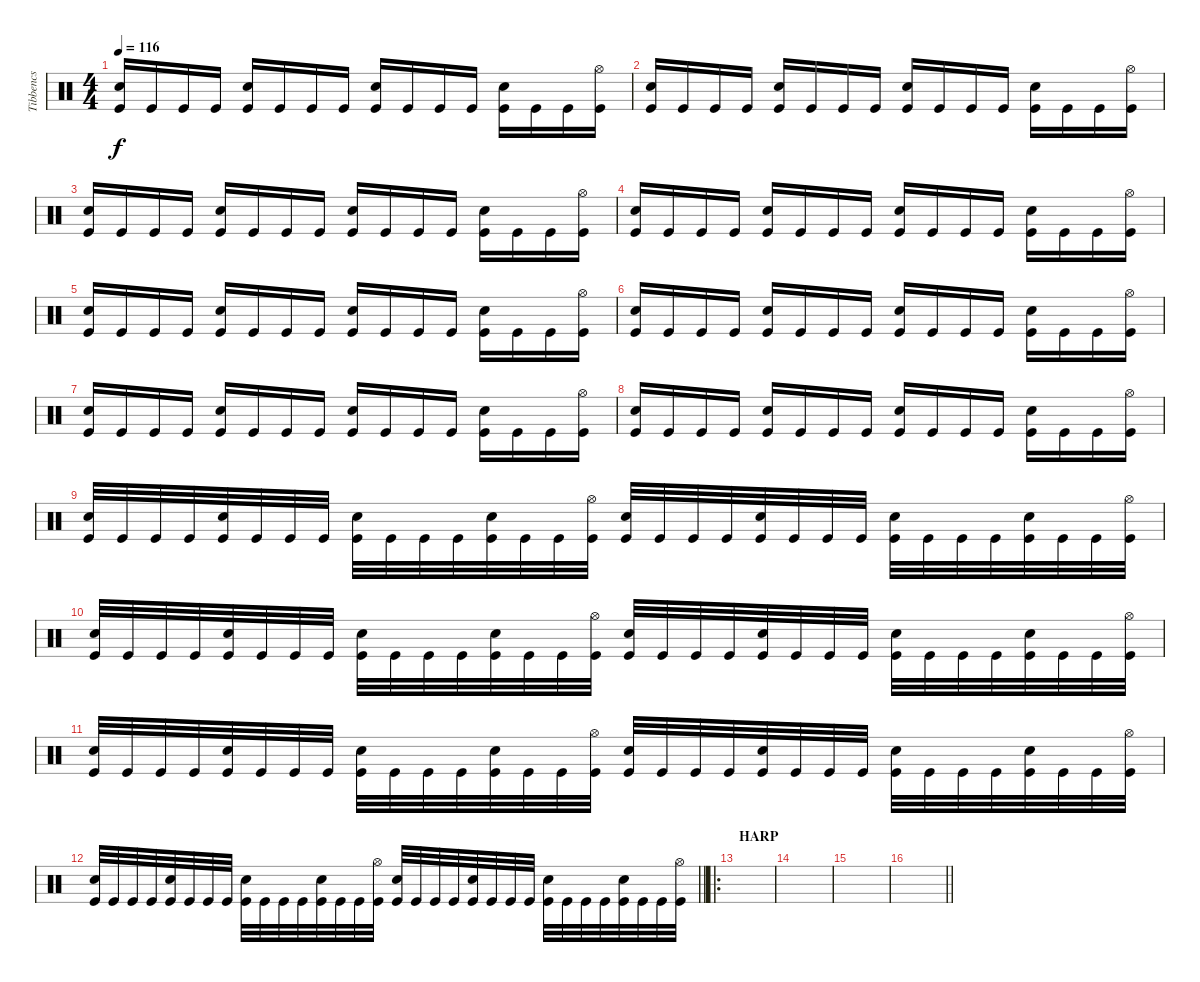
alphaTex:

\track ("Tibbencs" "Tibbencs") {instrument percussion}
\staff {score}
\articulation defaults
\ts (4 4)
\tempo 116
\clef neutral
\ks c
("Kick (hit)" "Snare (hit) 2").16{dy f} "Kick (hit)".16 "Kick (hit)".16 "Kick (hit)".16 ("Kick (hit)" "Snare (hit) 2").16 "Kick (hit)".16 "Kick (hit)".16 "Kick (hit)".16 ("Kick (hit)" "Snare (hit) 2").16 "Kick (hit)".16 "Kick (hit)".16 "Kick (hit)".16 ("Kick (hit)" "Snare (hit) 2").16 "Kick (hit)".16 "Kick (hit)".16 ("Kick (hit)" "Hi-Hat (open)").16 |
("Kick (hit)" "Snare (hit) 2").16 "Kick (hit)".16 "Kick (hit)".16 "Kick (hit)".16 ("Kick (hit)" "Snare (hit) 2").16 "Kick (hit)".16 "Kick (hit)".16 "Kick (hit)".16 ("Kick (hit)" "Snare (hit) 2").16 "Kick (hit)".16 "Kick (hit)".16 "Kick (hit)".16 ("Kick (hit)" "Snare (hit) 2").16 "Kick (hit)".16 "Kick (hit)".16 ("Kick (hit)" "Hi-Hat (open)").16 |
("Kick (hit)" "Snare (hit) 2").16 "Kick (hit)".16 "Kick (hit)".16 "Kick (hit)".16 ("Kick (hit)" "Snare (hit) 2").16 "Kick (hit)".16 "Kick (hit)".16 "Kick (hit)".16 ("Kick (hit)" "Snare (hit) 2").16 "Kick (hit)".16 "Kick (hit)".16 "Kick (hit)".16 ("Kick (hit)" "Snare (hit) 2").16 "Kick (hit)".16 "Kick (hit)".16 ("Kick (hit)" "Hi-Hat (open)").16 |
("Kick (hit)" "Snare (hit) 2").16 "Kick (hit)".16 "Kick (hit)".16 "Kick (hit)".16 ("Kick (hit)" "Snare (hit) 2").16 "Kick (hit)".16 "Kick (hit)".16 "Kick (hit)".16 ("Kick (hit)" "Snare (hit) 2").16 "Kick (hit)".16 "Kick (hit)".16 "Kick (hit)".16 ("Kick (hit)" "Snare (hit) 2").16 "Kick (hit)".16 "Kick (hit)".16 ("Kick (hit)" "Hi-Hat (open)").16 |
("Kick (hit)" "Snare (hit) 2").16 "Kick (hit)".16 "Kick (hit)".16 "Kick (hit)".16 ("Kick (hit)" "Snare (hit) 2").16 "Kick (hit)".16 "Kick (hit)".16 "Kick (hit)".16 ("Kick (hit)" "Snare (hit) 2").16 "Kick (hit)".16 "Kick (hit)".16 "Kick (hit)".16 ("Kick (hit)" "Snare (hit) 2").16 "Kick (hit)".16 "Kick (hit)".16 ("Kick (hit)" "Hi-Hat (open)").16 |
("Kick (hit)" "Snare (hit) 2").16 "Kick (hit)".16 "Kick (hit)".16 "Kick (hit)".16 ("Kick (hit)" "Snare (hit) 2").16 "Kick (hit)".16 "Kick (hit)".16 "Kick (hit)".16 ("Kick (hit)" "Snare (hit) 2").16 "Kick (hit)".16 "Kick (hit)".16 "Kick (hit)".16 ("Kick (hit)" "Snare (hit) 2").16 "Kick (hit)".16 "Kick (hit)".16 ("Kick (hit)" "Hi-Hat (open)").16 |
("Kick (hit)" "Snare (hit) 2").16 "Kick (hit)".16 "Kick (hit)".16 "Kick (hit)".16 ("Kick (hit)" "Snare (hit) 2").16 "Kick (hit)".16 "Kick (hit)".16 "Kick (hit)".16 ("Kick (hit)" "Snare (hit) 2").16 "Kick (hit)".16 "Kick (hit)".16 "Kick (hit)".16 ("Kick (hit)" "Snare (hit) 2").16 "Kick (hit)".16 "Kick (hit)".16 ("Kick (hit)" "Hi-Hat (open)").16 |
("Kick (hit)" "Snare (hit) 2").16 "Kick (hit)".16 "Kick (hit)".16 "Kick (hit)".16 ("Kick (hit)" "Snare (hit) 2").16 "Kick (hit)".16 "Kick (hit)".16 "Kick (hit)".16 ("Kick (hit)" "Snare (hit) 2").16 "Kick (hit)".16 "Kick (hit)".16 "Kick (hit)".16 ("Kick (hit)" "Snare (hit) 2").16 "Kick (hit)".16 "Kick (hit)".16 ("Kick (hit)" "Hi-Hat (open)").16 |
("Kick (hit)" "Snare (hit) 2").32 "Kick (hit)".32 "Kick (hit)".32 "Kick (hit)".32 ("Kick (hit)" "Snare (hit) 2").32 "Kick (hit)".32 "Kick (hit)".32 "Kick (hit)".32 ("Kick (hit)" "Snare (hit) 2").32 "Kick (hit)".32 "Kick (hit)".32 "Kick (hit)".32 ("Kick (hit)" "Snare (hit) 2").32 "Kick (hit)".32 "Kick (hit)".32 ("Kick (hit)" "Hi-Hat (open)").32 ("Kick (hit)" "Snare (hit) 2").32 "Kick (hit)".32 "Kick (hit)".32 "Kick (hit)".32 ("Kick (hit)" "Snare (hit) 2").32 "Kick (hit)".32 "Kick (hit)".32 "Kick (hit)".32 ("Kick (hit)" "Snare (hit) 2").32 "Kick (hit)".32 "Kick (hit)".32 "Kick (hit)".32 ("Kick (hit)" "Snare (hit) 2").32 "Kick (hit)".32 "Kick (hit)".32 ("Kick (hit)" "Hi-Hat (open)").32 |
("Kick (hit)" "Snare (hit) 2").32 "Kick (hit)".32 "Kick (hit)".32 "Kick (hit)".32 ("Kick (hit)" "Snare (hit) 2").32 "Kick (hit)".32 "Kick (hit)".32 "Kick (hit)".32 ("Kick (hit)" "Snare (hit) 2").32 "Kick (hit)".32 "Kick (hit)".32 "Kick (hit)".32 ("Kick (hit)" "Snare (hit) 2").32 "Kick (hit)".32 "Kick (hit)".32 ("Kick (hit)" "Hi-Hat (open)").32 ("Kick (hit)" "Snare (hit) 2").32 "Kick (hit)".32 "Kick (hit)".32 "Kick (hit)".32 ("Kick (hit)" "Snare (hit) 2").32 "Kick (hit)".32 "Kick (hit)".32 "Kick (hit)".32 ("Kick (hit)" "Snare (hit) 2").32 "Kick (hit)".32 "Kick (hit)".32 "Kick (hit)".32 ("Kick (hit)" "Snare (hit) 2").32 "Kick (hit)".32 "Kick (hit)".32 ("Kick (hit)" "Hi-Hat (open)").32 |
("Kick (hit)" "Snare (hit) 2").32 "Kick (hit)".32 "Kick (hit)".32 "Kick (hit)".32 ("Kick (hit)" "Snare (hit) 2").32 "Kick (hit)".32 "Kick (hit)".32 "Kick (hit)".32 ("Kick (hit)" "Snare (hit) 2").32 "Kick (hit)".32 "Kick (hit)".32 "Kick (hit)".32 ("Kick (hit)" "Snare (hit) 2").32 "Kick (hit)".32 "Kick (hit)".32 ("Kick (hit)" "Hi-Hat (open)").32 ("Kick (hit)" "Snare (hit) 2").32 "Kick (hit)".32 "Kick (hit)".32 "Kick (hit)".32 ("Kick (hit)" "Snare (hit) 2").32 "Kick (hit)".32 "Kick (hit)".32 "Kick (hit)".32 ("Kick (hit)" "Snare (hit) 2").32 "Kick (hit)".32 "Kick (hit)".32 "Kick (hit)".32 ("Kick (hit)" "Snare (hit) 2").32 "Kick (hit)".32 "Kick (hit)".32 ("Kick (hit)" "Hi-Hat (open)").32 |
\barLineRight lightlight
("Kick (hit)" "Snare (hit) 2").32 "Kick (hit)".32 "Kick (hit)".32 "Kick (hit)".32 ("Kick (hit)" "Snare (hit) 2").32 "Kick (hit)".32 "Kick (hit)".32 "Kick (hit)".32 ("Kick (hit)" "Snare (hit) 2").32 "Kick (hit)".32 "Kick (hit)".32 "Kick (hit)".32 ("Kick (hit)" "Snare (hit) 2").32 "Kick (hit)".32 "Kick (hit)".32 ("Kick (hit)" "Hi-Hat (open)").32 ("Kick (hit)" "Snare (hit) 2").32 "Kick (hit)".32 "Kick (hit)".32 "Kick (hit)".32 ("Kick (hit)" "Snare (hit) 2").32 "Kick (hit)".32 "Kick (hit)".32 "Kick (hit)".32 ("Kick (hit)" "Snare (hit) 2").32 "Kick (hit)".32 "Kick (hit)".32 "Kick (hit)".32 ("Kick (hit)" "Snare (hit) 2").32 "Kick (hit)".32 "Kick (hit)".32 ("Kick (hit)" "Hi-Hat (open)").32 |
\ro
\section ("" "HARP")
|
|
|
\barLineRight lightlight
